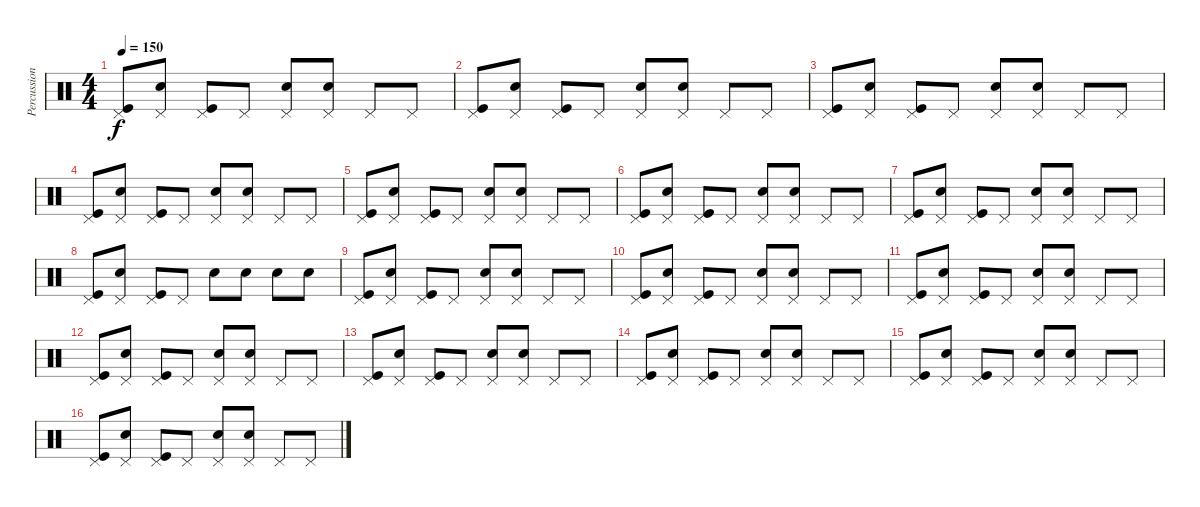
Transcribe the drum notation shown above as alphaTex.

\track ("Percussion" "Percussion") {instrument percussion}
\staff {score}
\articulation defaults
\ts (4 4)
\tempo 150
\clef neutral
\ks c
("Kick (hit)" "Pedal Hi-Hat (hit)").8{dy f} ("Electric Snare (hit)" "Pedal Hi-Hat (hit)").8 ("Kick (hit)" "Pedal Hi-Hat (hit)").8 "Pedal Hi-Hat (hit)".8 ("Electric Snare (hit)" "Pedal Hi-Hat (hit)").8 ("Electric Snare (hit)" "Pedal Hi-Hat (hit)").8 "Pedal Hi-Hat (hit)".8 "Pedal Hi-Hat (hit)".8 |
("Kick (hit)" "Pedal Hi-Hat (hit)").8 ("Electric Snare (hit)" "Pedal Hi-Hat (hit)").8 ("Kick (hit)" "Pedal Hi-Hat (hit)").8 "Pedal Hi-Hat (hit)".8 ("Electric Snare (hit)" "Pedal Hi-Hat (hit)").8 ("Electric Snare (hit)" "Pedal Hi-Hat (hit)").8 "Pedal Hi-Hat (hit)".8 "Pedal Hi-Hat (hit)".8 |
("Kick (hit)" "Pedal Hi-Hat (hit)").8 ("Electric Snare (hit)" "Pedal Hi-Hat (hit)").8 ("Kick (hit)" "Pedal Hi-Hat (hit)").8 "Pedal Hi-Hat (hit)".8 ("Electric Snare (hit)" "Pedal Hi-Hat (hit)").8 ("Electric Snare (hit)" "Pedal Hi-Hat (hit)").8 "Pedal Hi-Hat (hit)".8 "Pedal Hi-Hat (hit)".8 |
("Kick (hit)" "Pedal Hi-Hat (hit)").8 ("Electric Snare (hit)" "Pedal Hi-Hat (hit)").8 ("Kick (hit)" "Pedal Hi-Hat (hit)").8 "Pedal Hi-Hat (hit)".8 ("Electric Snare (hit)" "Pedal Hi-Hat (hit)").8 ("Electric Snare (hit)" "Pedal Hi-Hat (hit)").8 "Pedal Hi-Hat (hit)".8 "Pedal Hi-Hat (hit)".8 |
("Kick (hit)" "Pedal Hi-Hat (hit)").8 ("Electric Snare (hit)" "Pedal Hi-Hat (hit)").8 ("Kick (hit)" "Pedal Hi-Hat (hit)").8 "Pedal Hi-Hat (hit)".8 ("Electric Snare (hit)" "Pedal Hi-Hat (hit)").8 ("Electric Snare (hit)" "Pedal Hi-Hat (hit)").8 "Pedal Hi-Hat (hit)".8 "Pedal Hi-Hat (hit)".8 |
("Kick (hit)" "Pedal Hi-Hat (hit)").8 ("Electric Snare (hit)" "Pedal Hi-Hat (hit)").8 ("Kick (hit)" "Pedal Hi-Hat (hit)").8 "Pedal Hi-Hat (hit)".8 ("Electric Snare (hit)" "Pedal Hi-Hat (hit)").8 ("Electric Snare (hit)" "Pedal Hi-Hat (hit)").8 "Pedal Hi-Hat (hit)".8 "Pedal Hi-Hat (hit)".8 |
("Kick (hit)" "Pedal Hi-Hat (hit)").8 ("Electric Snare (hit)" "Pedal Hi-Hat (hit)").8 ("Kick (hit)" "Pedal Hi-Hat (hit)").8 "Pedal Hi-Hat (hit)".8 ("Electric Snare (hit)" "Pedal Hi-Hat (hit)").8 ("Electric Snare (hit)" "Pedal Hi-Hat (hit)").8 "Pedal Hi-Hat (hit)".8 "Pedal Hi-Hat (hit)".8 |
("Kick (hit)" "Pedal Hi-Hat (hit)").8 ("Electric Snare (hit)" "Pedal Hi-Hat (hit)").8 ("Kick (hit)" "Pedal Hi-Hat (hit)").8 "Pedal Hi-Hat (hit)".8 "Electric Snare (hit)".8 "Electric Snare (hit)".8 "Electric Snare (hit)".8 "Electric Snare (hit)".8 |
("Kick (hit)" "Pedal Hi-Hat (hit)").8 ("Electric Snare (hit)" "Pedal Hi-Hat (hit)").8 ("Kick (hit)" "Pedal Hi-Hat (hit)").8 "Pedal Hi-Hat (hit)".8 ("Electric Snare (hit)" "Pedal Hi-Hat (hit)").8 ("Electric Snare (hit)" "Pedal Hi-Hat (hit)").8 "Pedal Hi-Hat (hit)".8 "Pedal Hi-Hat (hit)".8 |
("Kick (hit)" "Pedal Hi-Hat (hit)").8 ("Electric Snare (hit)" "Pedal Hi-Hat (hit)").8 ("Kick (hit)" "Pedal Hi-Hat (hit)").8 "Pedal Hi-Hat (hit)".8 ("Electric Snare (hit)" "Pedal Hi-Hat (hit)").8 ("Electric Snare (hit)" "Pedal Hi-Hat (hit)").8 "Pedal Hi-Hat (hit)".8 "Pedal Hi-Hat (hit)".8 |
("Kick (hit)" "Pedal Hi-Hat (hit)").8 ("Electric Snare (hit)" "Pedal Hi-Hat (hit)").8 ("Kick (hit)" "Pedal Hi-Hat (hit)").8 "Pedal Hi-Hat (hit)".8 ("Electric Snare (hit)" "Pedal Hi-Hat (hit)").8 ("Electric Snare (hit)" "Pedal Hi-Hat (hit)").8 "Pedal Hi-Hat (hit)".8 "Pedal Hi-Hat (hit)".8 |
("Kick (hit)" "Pedal Hi-Hat (hit)").8 ("Electric Snare (hit)" "Pedal Hi-Hat (hit)").8 ("Kick (hit)" "Pedal Hi-Hat (hit)").8 "Pedal Hi-Hat (hit)".8 ("Electric Snare (hit)" "Pedal Hi-Hat (hit)").8 ("Electric Snare (hit)" "Pedal Hi-Hat (hit)").8 "Pedal Hi-Hat (hit)".8 "Pedal Hi-Hat (hit)".8 |
("Kick (hit)" "Pedal Hi-Hat (hit)").8 ("Electric Snare (hit)" "Pedal Hi-Hat (hit)").8 ("Kick (hit)" "Pedal Hi-Hat (hit)").8 "Pedal Hi-Hat (hit)".8 ("Electric Snare (hit)" "Pedal Hi-Hat (hit)").8 ("Electric Snare (hit)" "Pedal Hi-Hat (hit)").8 "Pedal Hi-Hat (hit)".8 "Pedal Hi-Hat (hit)".8 |
("Kick (hit)" "Pedal Hi-Hat (hit)").8 ("Electric Snare (hit)" "Pedal Hi-Hat (hit)").8 ("Kick (hit)" "Pedal Hi-Hat (hit)").8 "Pedal Hi-Hat (hit)".8 ("Electric Snare (hit)" "Pedal Hi-Hat (hit)").8 ("Electric Snare (hit)" "Pedal Hi-Hat (hit)").8 "Pedal Hi-Hat (hit)".8 "Pedal Hi-Hat (hit)".8 |
("Kick (hit)" "Pedal Hi-Hat (hit)").8 ("Electric Snare (hit)" "Pedal Hi-Hat (hit)").8 ("Kick (hit)" "Pedal Hi-Hat (hit)").8 "Pedal Hi-Hat (hit)".8 ("Electric Snare (hit)" "Pedal Hi-Hat (hit)").8 ("Electric Snare (hit)" "Pedal Hi-Hat (hit)").8 "Pedal Hi-Hat (hit)".8 "Pedal Hi-Hat (hit)".8 |
("Kick (hit)" "Pedal Hi-Hat (hit)").8 ("Electric Snare (hit)" "Pedal Hi-Hat (hit)").8 ("Kick (hit)" "Pedal Hi-Hat (hit)").8 "Pedal Hi-Hat (hit)".8 ("Electric Snare (hit)" "Pedal Hi-Hat (hit)").8 ("Electric Snare (hit)" "Pedal Hi-Hat (hit)").8 "Pedal Hi-Hat (hit)".8 "Pedal Hi-Hat (hit)".8
